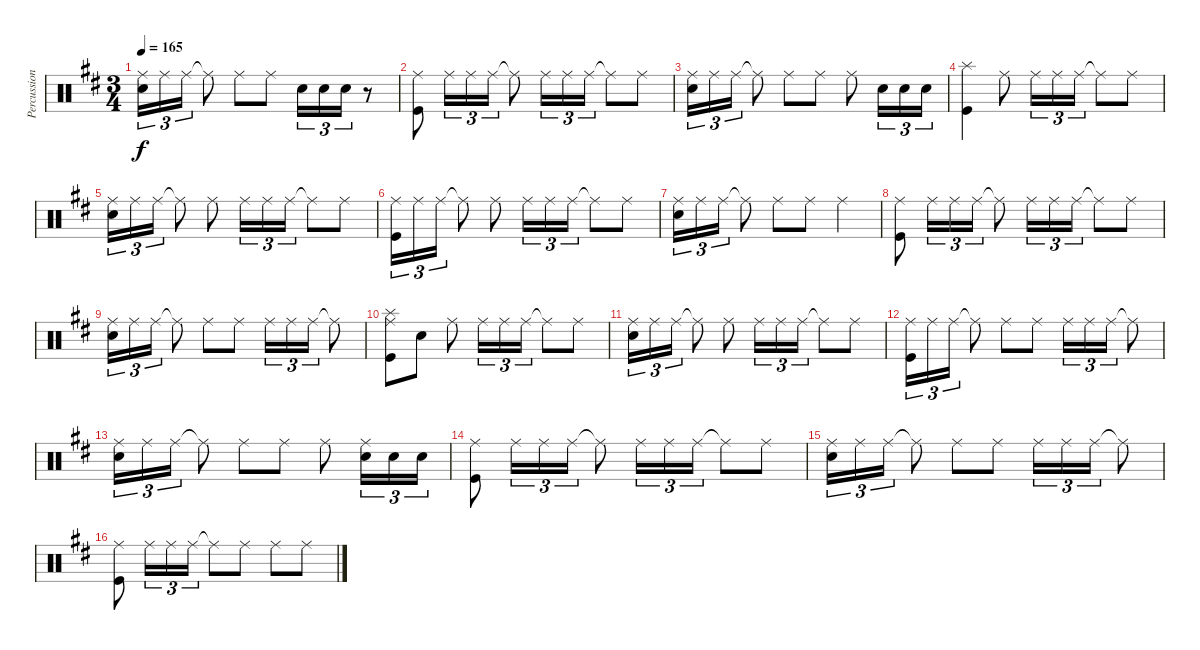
\track ("Percussion" "Percussion") {instrument percussion}
\staff {score}
\articulation defaults
\ts (3 4)
\tempo 165
\clef neutral
\ks d
("Ride (middle)" "Snare (hit) 2").16{tu (3 2) dy f} "Ride (middle)".16{tu (3 2)} "Ride (middle)".16{tu (3 2)} "Ride (middle)"{t}.8 "Ride (middle)".8 "Ride (middle)".8 "Snare (hit) 2".16{tu (3 2)} "Snare (hit) 2".16{tu (3 2)} "Snare (hit) 2".16{tu (3 2)} r.8 |
("Ride (middle)" "Kick (hit)").8 "Ride (middle)".16{tu (3 2)} "Ride (middle)".16{tu (3 2)} "Ride (middle)".16{tu (3 2)} "Ride (middle)"{t}.8 "Ride (middle)".16{tu (3 2)} "Ride (middle)".16{tu (3 2)} "Ride (middle)".16{tu (3 2)} "Ride (middle)"{t}.8 "Ride (middle)".8 |
("Ride (middle)" "Snare (hit) 2").16{tu (3 2)} "Ride (middle)".16{tu (3 2)} "Ride (middle)".16{tu (3 2)} "Ride (middle)"{t}.8 "Ride (middle)".8 "Ride (middle)".8 "Ride (middle)".8 "Snare (hit) 2".16{tu (3 2)} "Snare (hit) 2".16{tu (3 2)} "Snare (hit) 2".16{tu (3 2)} |
("Splash (hit)" "Kick (hit)").4 "Ride (middle)".8 "Ride (middle)".16{tu (3 2)} "Ride (middle)".16{tu (3 2)} "Ride (middle)".16{tu (3 2)} "Ride (middle)"{t}.8 "Ride (middle)".8 |
("Ride (middle)" "Snare (hit) 2").16{tu (3 2)} "Ride (middle)".16{tu (3 2)} "Ride (middle)".16{tu (3 2)} "Ride (middle)"{t}.8 "Ride (middle)".8 "Ride (middle)".16{tu (3 2)} "Ride (middle)".16{tu (3 2)} "Ride (middle)".16{tu (3 2)} "Ride (middle)"{t}.8 "Ride (middle)".8 |
("Ride (middle)" "Kick (hit)").16{tu (3 2)} "Ride (middle)".16{tu (3 2)} "Ride (middle)".16{tu (3 2)} "Ride (middle)"{t}.8 "Ride (middle)".8 "Ride (middle)".16{tu (3 2)} "Ride (middle)".16{tu (3 2)} "Ride (middle)".16{tu (3 2)} "Ride (middle)"{t}.8 "Ride (middle)".8 |
("Ride (middle)" "Snare (hit) 2").16{tu (3 2)} "Ride (middle)".16{tu (3 2)} "Ride (middle)".16{tu (3 2)} "Ride (middle)"{t}.8 "Ride (middle)".8 "Ride (middle)".8 "Ride (middle)".4 |
("Ride (middle)" "Kick (hit)").8 "Ride (middle)".16{tu (3 2)} "Ride (middle)".16{tu (3 2)} "Ride (middle)".16{tu (3 2)} "Ride (middle)"{t}.8 "Ride (middle)".16{tu (3 2)} "Ride (middle)".16{tu (3 2)} "Ride (middle)".16{tu (3 2)} "Ride (middle)"{t}.8 "Ride (middle)".8 |
("Ride (middle)" "Snare (hit) 2").16{tu (3 2)} "Ride (middle)".16{tu (3 2)} "Ride (middle)".16{tu (3 2)} "Ride (middle)"{t}.8 "Ride (middle)".8 "Ride (middle)".8 "Ride (middle)".16{tu (3 2)} "Ride (middle)".16{tu (3 2)} "Ride (middle)".16{tu (3 2)} "Ride (middle)"{t}.8 |
("Splash (hit)" "Ride (middle)" "Kick (hit)").8 "Snare (hit)".8 "Ride (middle)".8 "Ride (middle)".16{tu (3 2)} "Ride (middle)".16{tu (3 2)} "Ride (middle)".16{tu (3 2)} "Ride (middle)"{t}.8 "Ride (middle)".8 |
("Ride (middle)" "Snare (hit) 2").16{tu (3 2)} "Ride (middle)".16{tu (3 2)} "Ride (middle)".16{tu (3 2)} "Ride (middle)"{t}.8 "Ride (middle)".8 "Ride (middle)".16{tu (3 2)} "Ride (middle)".16{tu (3 2)} "Ride (middle)".16{tu (3 2)} "Ride (middle)"{t}.8 "Ride (middle)".8 |
("Ride (middle)" "Kick (hit)").16{tu (3 2)} "Ride (middle)".16{tu (3 2)} "Ride (middle)".16{tu (3 2)} "Ride (middle)"{t}.8 "Ride (middle)".8 "Ride (middle)".8 "Ride (middle)".16{tu (3 2)} "Ride (middle)".16{tu (3 2)} "Ride (middle)".16{tu (3 2)} "Ride (middle)"{t}.8 |
("Ride (middle)" "Snare (hit) 2").16{tu (3 2)} "Ride (middle)".16{tu (3 2)} "Ride (middle)".16{tu (3 2)} "Ride (middle)"{t}.8 "Ride (middle)".8 "Ride (middle)".8 "Ride (middle)".8 ("Ride (middle)" "Snare (hit) 2").16{tu (3 2)} "Snare (hit) 2".16{tu (3 2)} "Snare (hit) 2".16{tu (3 2)} |
("Ride (middle)" "Kick (hit)").8 "Ride (middle)".16{tu (3 2)} "Ride (middle)".16{tu (3 2)} "Ride (middle)".16{tu (3 2)} "Ride (middle)"{t}.8 "Ride (middle)".16{tu (3 2)} "Ride (middle)".16{tu (3 2)} "Ride (middle)".16{tu (3 2)} "Ride (middle)"{t}.8 "Ride (middle)".8 |
("Ride (middle)" "Snare (hit) 2").16{tu (3 2)} "Ride (middle)".16{tu (3 2)} "Ride (middle)".16{tu (3 2)} "Ride (middle)"{t}.8 "Ride (middle)".8 "Ride (middle)".8 "Ride (middle)".16{tu (3 2)} "Ride (middle)".16{tu (3 2)} "Ride (middle)".16{tu (3 2)} "Ride (middle)"{t}.8 |
("Ride (middle)" "Kick (hit)").8 "Ride (middle)".16{tu (3 2)} "Ride (middle)".16{tu (3 2)} "Ride (middle)".16{tu (3 2)} "Ride (middle)"{t}.8 "Ride (middle)".8 "Ride (middle)".8 "Ride (middle)".8
